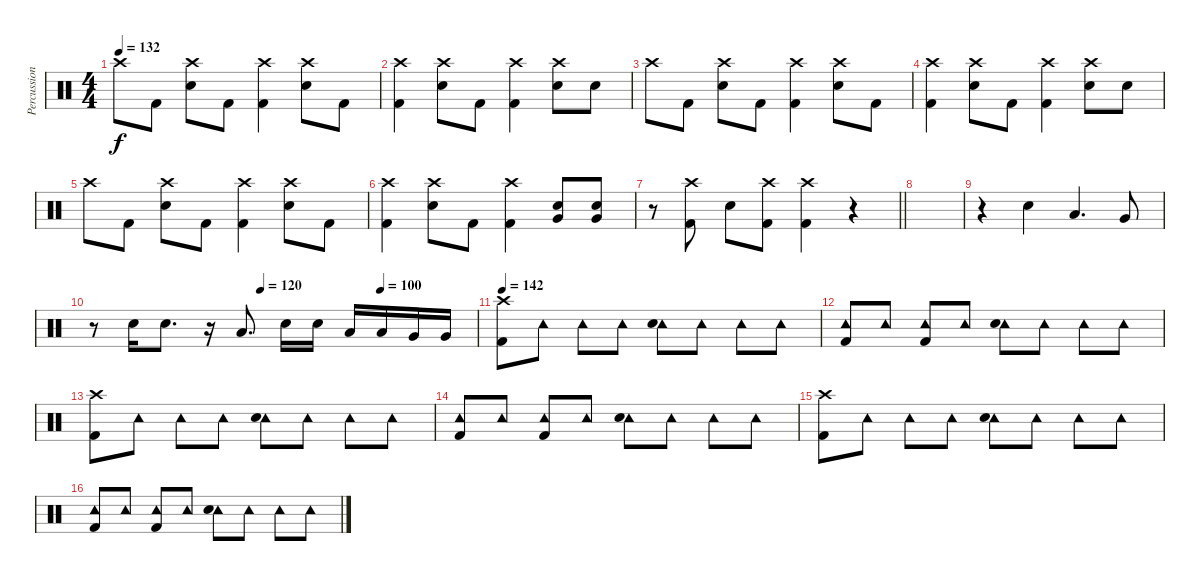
\track ("Percussion" "Percussion") {instrument percussion}
\staff {score}
\articulation defaults
\ts (4 4)
\tempo 132
\clef neutral
\ks c "Crash high (hit)".8{dy f} "Kick (hit) 2".8
("Crash high (hit)" "Snare (hit) 2").8 "Kick (hit) 2".8 ("Crash high (hit)" "Kick (hit) 2").4 ("Crash high (hit)" "Snare (hit) 2").8 "Kick (hit) 2".8 |
("Crash high (hit)" "Kick (hit) 2").4 ("Crash high (hit)" "Snare (hit) 2").8 "Kick (hit) 2".8 ("Crash high (hit)" "Kick (hit) 2").4 ("Crash high (hit)" "Snare (hit) 2").8 "Snare (hit) 2".8 |
"Crash high (hit)".8 "Kick (hit) 2".8 ("Crash high (hit)" "Snare (hit) 2").8 "Kick (hit) 2".8 ("Crash high (hit)" "Kick (hit) 2").4 ("Crash high (hit)" "Snare (hit) 2").8 "Kick (hit) 2".8 |
("Crash high (hit)" "Kick (hit) 2").4 ("Crash high (hit)" "Snare (hit) 2").8 "Kick (hit) 2".8 ("Crash high (hit)" "Kick (hit) 2").4 ("Crash high (hit)" "Snare (hit) 2").8 "Snare (hit) 2".8 |
"Crash high (hit)".8 "Kick (hit) 2".8 ("Crash high (hit)" "Snare (hit) 2").8 "Kick (hit) 2".8 ("Crash high (hit)" "Kick (hit) 2").4 ("Crash high (hit)" "Snare (hit) 2").8 "Kick (hit) 2".8 |
("Crash high (hit)" "Kick (hit) 2").4 ("Crash high (hit)" "Snare (hit) 2").8 "Kick (hit) 2".8 ("Crash high (hit)" "Kick (hit) 2").4 ("Snare (hit) 2" "Very Low Tom (hit)").8 ("Snare (hit) 2" "Very Low Tom (hit)").8 |
\barLineRight lightlight
r.8 ("Crash high (hit)" "Kick (hit) 2").8 "Snare (hit) 2".8 ("Crash high (hit)" "Kick (hit) 2").8 ("Crash high (hit)" "Kick (hit) 2").4 r.4 |
|
r.4 "Snare (hit) 2".4 "Low Tom (hit)".4{d} "Very Low Tom (hit)".8 |
\tempo (120 0.4375)
\tempo (100 0.75)
r.8 "Snare (hit) 2".16 "Snare (hit) 2".8{d} r.16 "Low Tom (hit)".8{d} "Snare (hit) 2".16 "Snare (hit) 2".16 "Low Tom (hit)".16 "Low Tom (hit)".16 "Very Low Tom (hit)".16 "Very Low Tom (hit)".16 |
\tempo 142
("Crash high (hit)" "Kick (hit) 2").8 "Tambourine (hit)".8 "Tambourine (hit)".8 "Tambourine (hit)".8 ("Tambourine (hit)" "Snare (hit) 2").8 "Tambourine (hit)".8 "Tambourine (hit)".8 "Tambourine (hit)".8 |
("Tambourine (hit)" "Kick (hit) 2").8 "Tambourine (hit)".8 ("Tambourine (hit)" "Kick (hit) 2").8 "Tambourine (hit)".8 ("Tambourine (hit)" "Snare (hit) 2").8 "Tambourine (hit)".8 "Tambourine (hit)".8 "Tambourine (hit)".8 |
("Crash high (hit)" "Kick (hit) 2").8 "Tambourine (hit)".8 "Tambourine (hit)".8 "Tambourine (hit)".8 ("Tambourine (hit)" "Snare (hit) 2").8 "Tambourine (hit)".8 "Tambourine (hit)".8 "Tambourine (hit)".8 |
("Tambourine (hit)" "Kick (hit) 2").8 "Tambourine (hit)".8 ("Tambourine (hit)" "Kick (hit) 2").8 "Tambourine (hit)".8 ("Tambourine (hit)" "Snare (hit) 2").8 "Tambourine (hit)".8 "Tambourine (hit)".8 "Tambourine (hit)".8 |
("Crash high (hit)" "Kick (hit) 2").8 "Tambourine (hit)".8 "Tambourine (hit)".8 "Tambourine (hit)".8 ("Tambourine (hit)" "Snare (hit) 2").8 "Tambourine (hit)".8 "Tambourine (hit)".8 "Tambourine (hit)".8 |
("Tambourine (hit)" "Kick (hit) 2").8 "Tambourine (hit)".8 ("Tambourine (hit)" "Kick (hit) 2").8 "Tambourine (hit)".8 ("Tambourine (hit)" "Snare (hit) 2").8 "Tambourine (hit)".8 "Tambourine (hit)".8 "Tambourine (hit)".8
